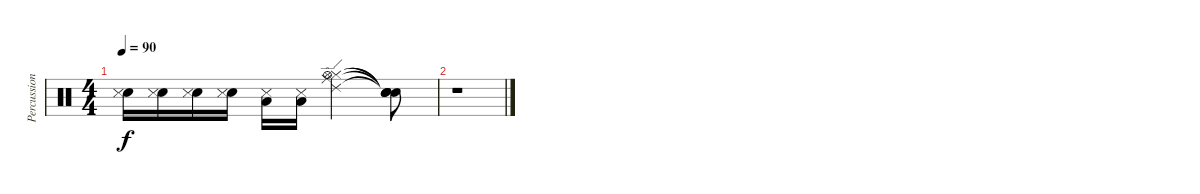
\track ("Percussion" "Percussion") {instrument percussion}
\staff {score}
\articulation defaults
\ts (4 4)
\tempo 90
\clef neutral
\ks c
("Electric Snare (hit)" "Snare (side stick) 3").16{dy f} ("Electric Snare (hit)" "Snare (side stick) 3").16 ("Electric Snare (hit)" "Snare (side stick) 3").16 ("Electric Snare (hit)" "Snare (side stick) 3").16 ("Snare (side stick) 3" "Low Floor Tom (hit)").16 ("Snare (side stick) 3" "Low Floor Tom (hit)").16 ("Hi-Hat (closed)" "Hi-Hat (open)" "Ride (middle)" "Ride (edge) 2").2 ("Snare (hit)"{t} "Snare (hit)"{t} "Snare (hit)"{t} "Snare (hit)"{t}).8 |
r.1
